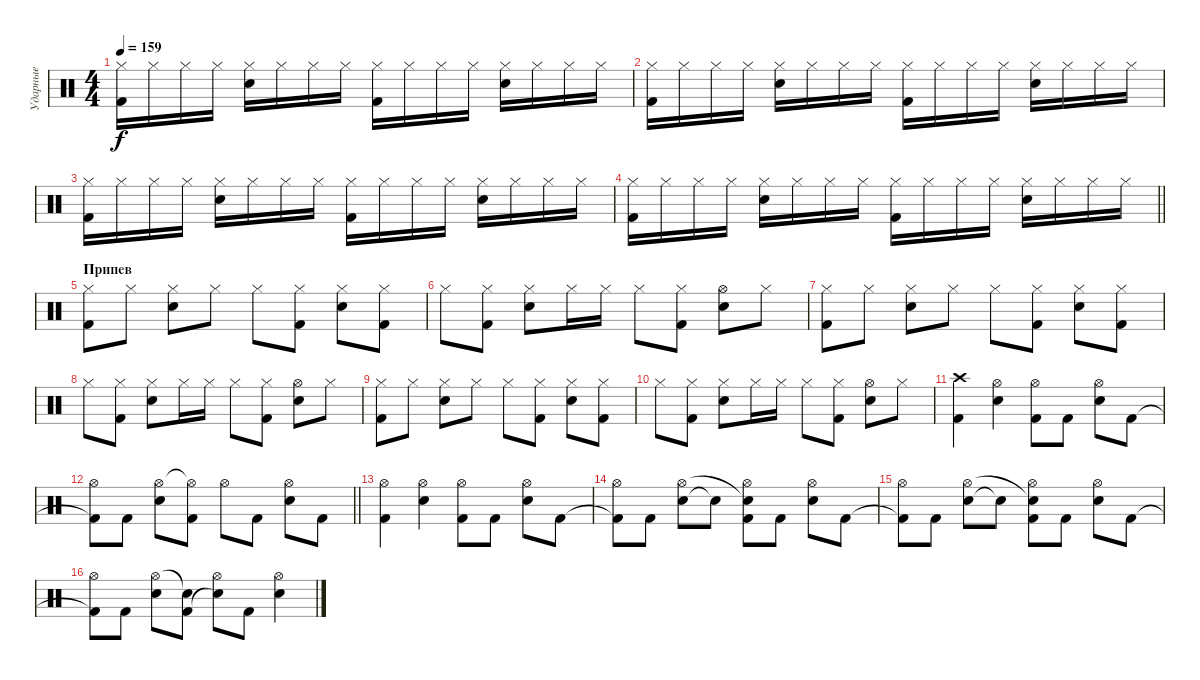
\track ("Ударные" "Ударные") {instrument percussion}
\staff {score}
\articulation defaults
\ts (4 4)
\tempo 159
\clef neutral
\ks c
("Kick (hit) 2" "Hi-Hat (closed)").16{dy f} "Hi-Hat (closed)".16 "Hi-Hat (closed)".16 "Hi-Hat (closed)".16 ("Snare (hit) 2" "Hi-Hat (closed)").16 "Hi-Hat (closed)".16 "Hi-Hat (closed)".16 "Hi-Hat (closed)".16 ("Kick (hit) 2" "Hi-Hat (closed)").16 "Hi-Hat (closed)".16 "Hi-Hat (closed)".16 "Hi-Hat (closed)".16 ("Snare (hit) 2" "Hi-Hat (closed)").16 "Hi-Hat (closed)".16 "Hi-Hat (closed)".16 "Hi-Hat (closed)".16 |
("Kick (hit) 2" "Hi-Hat (closed)").16 "Hi-Hat (closed)".16 "Hi-Hat (closed)".16 "Hi-Hat (closed)".16 ("Snare (hit) 2" "Hi-Hat (closed)").16 "Hi-Hat (closed)".16 "Hi-Hat (closed)".16 "Hi-Hat (closed)".16 ("Kick (hit) 2" "Hi-Hat (closed)").16 "Hi-Hat (closed)".16 "Hi-Hat (closed)".16 "Hi-Hat (closed)".16 ("Snare (hit) 2" "Hi-Hat (closed)").16 "Hi-Hat (closed)".16 "Hi-Hat (closed)".16 "Hi-Hat (closed)".16 |
("Kick (hit) 2" "Hi-Hat (closed)").16 "Hi-Hat (closed)".16 "Hi-Hat (closed)".16 "Hi-Hat (closed)".16 ("Snare (hit) 2" "Hi-Hat (closed)").16 "Hi-Hat (closed)".16 "Hi-Hat (closed)".16 "Hi-Hat (closed)".16 ("Kick (hit) 2" "Hi-Hat (closed)").16 "Hi-Hat (closed)".16 "Hi-Hat (closed)".16 "Hi-Hat (closed)".16 ("Snare (hit) 2" "Hi-Hat (closed)").16 "Hi-Hat (closed)".16 "Hi-Hat (closed)".16 "Hi-Hat (closed)".16 |
\barLineRight lightlight
("Kick (hit) 2" "Hi-Hat (closed)").16 "Hi-Hat (closed)".16 "Hi-Hat (closed)".16 "Hi-Hat (closed)".16 ("Snare (hit) 2" "Hi-Hat (closed)").16 "Hi-Hat (closed)".16 "Hi-Hat (closed)".16 "Hi-Hat (closed)".16 ("Kick (hit) 2" "Hi-Hat (closed)").16 "Hi-Hat (closed)".16 "Hi-Hat (closed)".16 "Hi-Hat (closed)".16 ("Snare (hit) 2" "Hi-Hat (closed)").16 "Hi-Hat (closed)".16 "Hi-Hat (closed)".16 "Hi-Hat (closed)".16 |
\section ("" "Припев")
("Kick (hit) 2" "Hi-Hat (closed)").8 "Hi-Hat (closed)".8 ("Snare (hit) 2" "Hi-Hat (closed)").8 "Hi-Hat (closed)".8 "Hi-Hat (closed)".8 ("Kick (hit) 2" "Hi-Hat (closed)").8 ("Snare (hit) 2" "Hi-Hat (closed)").8 ("Kick (hit) 2" "Hi-Hat (closed)").8 |
"Hi-Hat (closed)".8 ("Kick (hit) 2" "Hi-Hat (closed)").8 ("Snare (hit) 2" "Hi-Hat (closed)").8 "Hi-Hat (closed)".16 "Hi-Hat (closed)".16 "Hi-Hat (closed)".8 ("Kick (hit) 2" "Hi-Hat (closed)").8 ("Snare (hit) 2" "Hi-Hat (open)").8 "Hi-Hat (closed)".8 |
("Kick (hit) 2" "Hi-Hat (closed)").8 "Hi-Hat (closed)".8 ("Snare (hit) 2" "Hi-Hat (closed)").8 "Hi-Hat (closed)".8 "Hi-Hat (closed)".8 ("Kick (hit) 2" "Hi-Hat (closed)").8 ("Snare (hit) 2" "Hi-Hat (closed)").8 ("Kick (hit) 2" "Hi-Hat (closed)").8 |
"Hi-Hat (closed)".8 ("Kick (hit) 2" "Hi-Hat (closed)").8 ("Snare (hit) 2" "Hi-Hat (closed)").8 "Hi-Hat (closed)".16 "Hi-Hat (closed)".16 "Hi-Hat (closed)".8 ("Kick (hit) 2" "Hi-Hat (closed)").8 ("Snare (hit) 2" "Hi-Hat (open)").8 "Hi-Hat (closed)".8 |
("Kick (hit) 2" "Hi-Hat (closed)").8 "Hi-Hat (closed)".8 ("Snare (hit) 2" "Hi-Hat (closed)").8 "Hi-Hat (closed)".8 "Hi-Hat (closed)".8 ("Kick (hit) 2" "Hi-Hat (closed)").8 ("Snare (hit) 2" "Hi-Hat (closed)").8 ("Kick (hit) 2" "Hi-Hat (closed)").8 |
"Hi-Hat (closed)".8 ("Kick (hit) 2" "Hi-Hat (closed)").8 ("Snare (hit) 2" "Hi-Hat (closed)").8 "Hi-Hat (closed)".16 "Hi-Hat (closed)".16 "Hi-Hat (closed)".8 ("Kick (hit) 2" "Hi-Hat (closed)").8 ("Snare (hit) 2" "Hi-Hat (open)").8 "Hi-Hat (closed)".8 |
("Kick (hit) 2" "Crash high (hit)").4 ("Snare (hit) 2" "Hi-Hat (open)").4 ("Kick (hit) 2" "Hi-Hat (open)").8 "Kick (hit) 2".8 ("Snare (hit) 2" "Hi-Hat (open)").8 "Kick (hit) 2".8 |
\barLineRight lightlight
("Kick (hit) 2"{t} "Hi-Hat (open)").8 "Kick (hit) 2".8 ("Snare (hit) 2" "Hi-Hat (open)").8 ("Kick (hit) 2" "Hi-Hat (open)"{t}).8 "Hi-Hat (open)".8 "Kick (hit) 2".8 ("Snare (hit) 2" "Hi-Hat (open)").8 "Kick (hit) 2".8 |
("Kick (hit) 2" "Hi-Hat (open)").4 ("Snare (hit) 2" "Hi-Hat (open)").4 ("Kick (hit) 2" "Hi-Hat (open)").8 "Kick (hit) 2".8 ("Snare (hit) 2" "Hi-Hat (open)").8 "Kick (hit) 2".8 |
("Kick (hit) 2"{t} "Hi-Hat (open)").8 "Kick (hit) 2".8 ("Snare (hit) 2" "Hi-Hat (open)").8 "Snare (hit) 2"{t}.8 ("Kick (hit) 2" "Snare (hit) 2"{t} "Hi-Hat (open)").8 "Kick (hit) 2".8 ("Snare (hit) 2" "Hi-Hat (open)").8 "Kick (hit) 2".8 |
("Kick (hit) 2"{t} "Hi-Hat (open)").8 "Kick (hit) 2".8 ("Snare (hit) 2" "Hi-Hat (open)").8 "Snare (hit) 2"{t}.8 ("Kick (hit) 2" "Snare (hit) 2"{t} "Hi-Hat (open)").8 "Kick (hit) 2".8 ("Snare (hit) 2" "Hi-Hat (open)").8 "Kick (hit) 2".8 |
("Kick (hit) 2"{t} "Hi-Hat (open)").8 "Kick (hit) 2".8 ("Snare (hit) 2" "Hi-Hat (open)").8 ("Kick (hit) 2" "Snare (hit) 2"{t}).8 ("Snare (hit) 2"{t} "Hi-Hat (open)").8 "Kick (hit) 2".8 ("Snare (hit) 2" "Hi-Hat (open)").4
